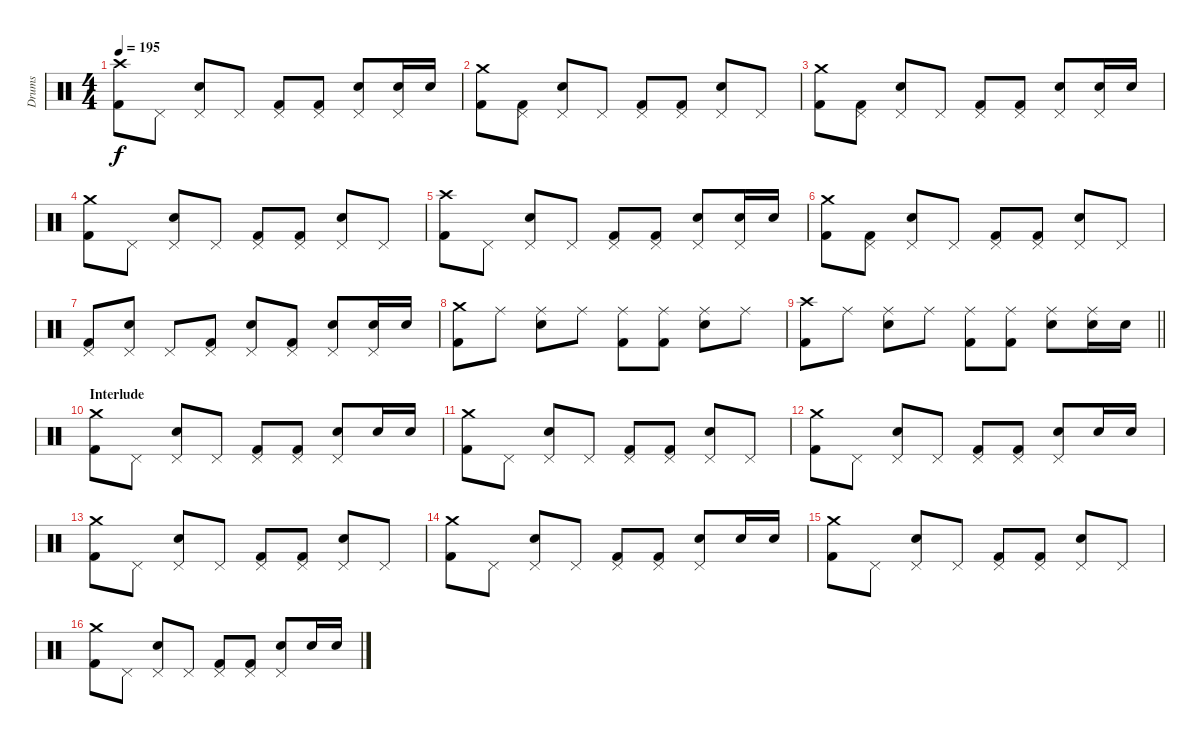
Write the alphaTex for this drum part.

\track ("Drums" "Drums") {instrument percussion}
\staff {score}
\articulation defaults
\ts (4 4)
\tempo 195
\clef neutral
\ks c
("Crash high (hit)" "Kick (hit) 2").8{dy f} "Pedal Hi-Hat (hit)".8 ("Pedal Hi-Hat (hit)" "Electric Snare (hit)").8 "Pedal Hi-Hat (hit)".8 ("Pedal Hi-Hat (hit)" "Kick (hit) 2").8 ("Pedal Hi-Hat (hit)" "Kick (hit) 2").8 ("Pedal Hi-Hat (hit)" "Electric Snare (hit)").8 ("Pedal Hi-Hat (hit)" "Electric Snare (hit)").16 "Electric Snare (hit)".16 |
("Crash medium (hit)" "Kick (hit) 2").8 ("Pedal Hi-Hat (hit)" "Kick (hit) 2").8 ("Pedal Hi-Hat (hit)" "Electric Snare (hit)").8 "Pedal Hi-Hat (hit)".8 ("Pedal Hi-Hat (hit)" "Kick (hit) 2").8 ("Pedal Hi-Hat (hit)" "Kick (hit) 2").8 ("Pedal Hi-Hat (hit)" "Electric Snare (hit)").8 "Pedal Hi-Hat (hit)".8 |
("Crash medium (hit)" "Kick (hit) 2").8 ("Pedal Hi-Hat (hit)" "Kick (hit) 2").8 ("Pedal Hi-Hat (hit)" "Electric Snare (hit)").8 "Pedal Hi-Hat (hit)".8 ("Pedal Hi-Hat (hit)" "Kick (hit) 2").8 ("Pedal Hi-Hat (hit)" "Kick (hit) 2").8 ("Pedal Hi-Hat (hit)" "Electric Snare (hit)").8 ("Pedal Hi-Hat (hit)" "Electric Snare (hit)").16 "Electric Snare (hit)".16 |
("Crash medium (hit)" "Kick (hit) 2").8 "Pedal Hi-Hat (hit)".8 ("Pedal Hi-Hat (hit)" "Electric Snare (hit)").8 "Pedal Hi-Hat (hit)".8 ("Pedal Hi-Hat (hit)" "Kick (hit) 2").8 ("Pedal Hi-Hat (hit)" "Kick (hit) 2").8 ("Pedal Hi-Hat (hit)" "Electric Snare (hit)").8 "Pedal Hi-Hat (hit)".8 |
("Crash high (hit)" "Kick (hit) 2").8 "Pedal Hi-Hat (hit)".8 ("Pedal Hi-Hat (hit)" "Electric Snare (hit)").8 "Pedal Hi-Hat (hit)".8 ("Pedal Hi-Hat (hit)" "Kick (hit) 2").8 ("Pedal Hi-Hat (hit)" "Kick (hit) 2").8 ("Pedal Hi-Hat (hit)" "Electric Snare (hit)").8 ("Pedal Hi-Hat (hit)" "Electric Snare (hit)").16 "Electric Snare (hit)".16 |
("Crash medium (hit)" "Kick (hit) 2").8 ("Pedal Hi-Hat (hit)" "Kick (hit) 2").8 ("Pedal Hi-Hat (hit)" "Electric Snare (hit)").8 "Pedal Hi-Hat (hit)".8 ("Pedal Hi-Hat (hit)" "Kick (hit) 2").8 ("Pedal Hi-Hat (hit)" "Kick (hit) 2").8 ("Pedal Hi-Hat (hit)" "Electric Snare (hit)").8 "Pedal Hi-Hat (hit)".8 |
("Pedal Hi-Hat (hit)" "Kick (hit) 2").8 ("Pedal Hi-Hat (hit)" "Electric Snare (hit)").8 "Pedal Hi-Hat (hit)".8 ("Pedal Hi-Hat (hit)" "Kick (hit) 2").8 ("Pedal Hi-Hat (hit)" "Electric Snare (hit)").8 ("Pedal Hi-Hat (hit)" "Kick (hit) 2").8 ("Pedal Hi-Hat (hit)" "Electric Snare (hit)").8 ("Pedal Hi-Hat (hit)" "Electric Snare (hit)").16 "Electric Snare (hit)".16 |
("Crash medium (hit)" "Kick (hit) 2").8 "Ride (middle)".8 ("Ride (middle)" "Electric Snare (hit)").8 "Ride (middle)".8 ("Ride (middle)" "Kick (hit) 2").8 ("Ride (middle)" "Kick (hit) 2").8 ("Ride (middle)" "Electric Snare (hit)").8 "Ride (middle)".8 |
\barLineRight lightlight
("Crash high (hit)" "Kick (hit) 2").8 "Ride (middle)".8 ("Ride (middle)" "Electric Snare (hit)").8 "Ride (middle)".8 ("Ride (middle)" "Kick (hit) 2").8 ("Ride (middle)" "Kick (hit) 2").8 ("Ride (middle)" "Electric Snare (hit)").8 ("Ride (middle)" "Electric Snare (hit)").16 "Electric Snare (hit)".16 |
\section ("" "Interlude")
("Crash medium (hit)" "Kick (hit) 2").8 "Pedal Hi-Hat (hit)".8 ("Pedal Hi-Hat (hit)" "Electric Snare (hit)").8 "Pedal Hi-Hat (hit)".8 ("Pedal Hi-Hat (hit)" "Kick (hit) 2").8 ("Pedal Hi-Hat (hit)" "Kick (hit) 2").8 ("Pedal Hi-Hat (hit)" "Electric Snare (hit)").8 "Electric Snare (hit)".16 "Electric Snare (hit)".16 |
("Crash medium (hit)" "Kick (hit) 2").8 "Pedal Hi-Hat (hit)".8 ("Pedal Hi-Hat (hit)" "Electric Snare (hit)").8 "Pedal Hi-Hat (hit)".8 ("Pedal Hi-Hat (hit)" "Kick (hit) 2").8 ("Pedal Hi-Hat (hit)" "Kick (hit) 2").8 ("Pedal Hi-Hat (hit)" "Electric Snare (hit)").8 "Pedal Hi-Hat (hit)".8 |
("Crash medium (hit)" "Kick (hit) 2").8 "Pedal Hi-Hat (hit)".8 ("Pedal Hi-Hat (hit)" "Electric Snare (hit)").8 "Pedal Hi-Hat (hit)".8 ("Pedal Hi-Hat (hit)" "Kick (hit) 2").8 ("Pedal Hi-Hat (hit)" "Kick (hit) 2").8 ("Pedal Hi-Hat (hit)" "Electric Snare (hit)").8 "Electric Snare (hit)".16 "Electric Snare (hit)".16 |
("Crash medium (hit)" "Kick (hit) 2").8 "Pedal Hi-Hat (hit)".8 ("Pedal Hi-Hat (hit)" "Electric Snare (hit)").8 "Pedal Hi-Hat (hit)".8 ("Pedal Hi-Hat (hit)" "Kick (hit) 2").8 ("Pedal Hi-Hat (hit)" "Kick (hit) 2").8 ("Pedal Hi-Hat (hit)" "Electric Snare (hit)").8 "Pedal Hi-Hat (hit)".8 |
("Crash medium (hit)" "Kick (hit) 2").8 "Pedal Hi-Hat (hit)".8 ("Pedal Hi-Hat (hit)" "Electric Snare (hit)").8 "Pedal Hi-Hat (hit)".8 ("Pedal Hi-Hat (hit)" "Kick (hit) 2").8 ("Pedal Hi-Hat (hit)" "Kick (hit) 2").8 ("Pedal Hi-Hat (hit)" "Electric Snare (hit)").8 "Electric Snare (hit)".16 "Electric Snare (hit)".16 |
("Crash medium (hit)" "Kick (hit) 2").8 "Pedal Hi-Hat (hit)".8 ("Pedal Hi-Hat (hit)" "Electric Snare (hit)").8 "Pedal Hi-Hat (hit)".8 ("Pedal Hi-Hat (hit)" "Kick (hit) 2").8 ("Pedal Hi-Hat (hit)" "Kick (hit) 2").8 ("Pedal Hi-Hat (hit)" "Electric Snare (hit)").8 "Pedal Hi-Hat (hit)".8 |
("Crash medium (hit)" "Kick (hit) 2").8 "Pedal Hi-Hat (hit)".8 ("Pedal Hi-Hat (hit)" "Electric Snare (hit)").8 "Pedal Hi-Hat (hit)".8 ("Pedal Hi-Hat (hit)" "Kick (hit) 2").8 ("Pedal Hi-Hat (hit)" "Kick (hit) 2").8 ("Pedal Hi-Hat (hit)" "Electric Snare (hit)").8 "Electric Snare (hit)".16 "Electric Snare (hit)".16
